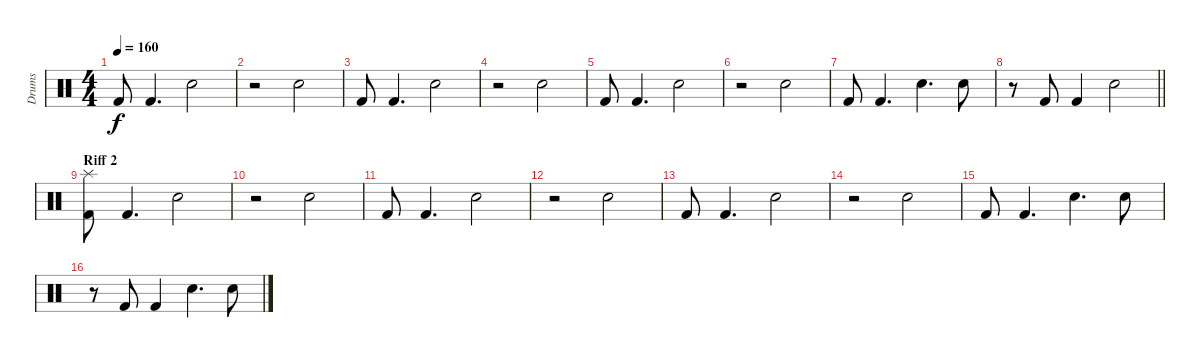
\track ("Drums" "Drums") {instrument percussion}
\staff {score}
\articulation defaults
\ts (4 4)
\tempo 160
\clef neutral
\ks c "Kick (hit) 2".8{dy f} "Kick (hit) 2".4{d} "Snare (hit) 2".2
|
r.2 "Snare (hit) 2".2 |
"Kick (hit) 2".8 "Kick (hit) 2".4{d} "Snare (hit) 2".2 |
r.2 "Snare (hit) 2".2 |
"Kick (hit) 2".8 "Kick (hit) 2".4{d} "Snare (hit) 2".2 |
r.2 "Snare (hit) 2".2 |
"Kick (hit) 2".8 "Kick (hit) 2".4{d} "Snare (hit) 2".4{d} "Snare (hit) 2".8 |
\barLineRight lightlight
r.8 "Kick (hit) 2".8 "Kick (hit) 2".4 "Snare (hit) 2".2 |
\section ("" "Riff 2")
("Kick (hit) 2" "Splash (hit)").8 "Kick (hit) 2".4{d} "Snare (hit) 2".2 |
r.2 "Snare (hit) 2".2 |
"Kick (hit) 2".8 "Kick (hit) 2".4{d} "Snare (hit) 2".2 |
r.2 "Snare (hit) 2".2 |
"Kick (hit) 2".8 "Kick (hit) 2".4{d} "Snare (hit) 2".2 |
r.2 "Snare (hit) 2".2 |
"Kick (hit) 2".8 "Kick (hit) 2".4{d} "Snare (hit) 2".4{d} "Snare (hit) 2".8 |
r.8 "Kick (hit) 2".8 "Kick (hit) 2".4 "Snare (hit) 2".4{d} "Snare (hit) 2".8
